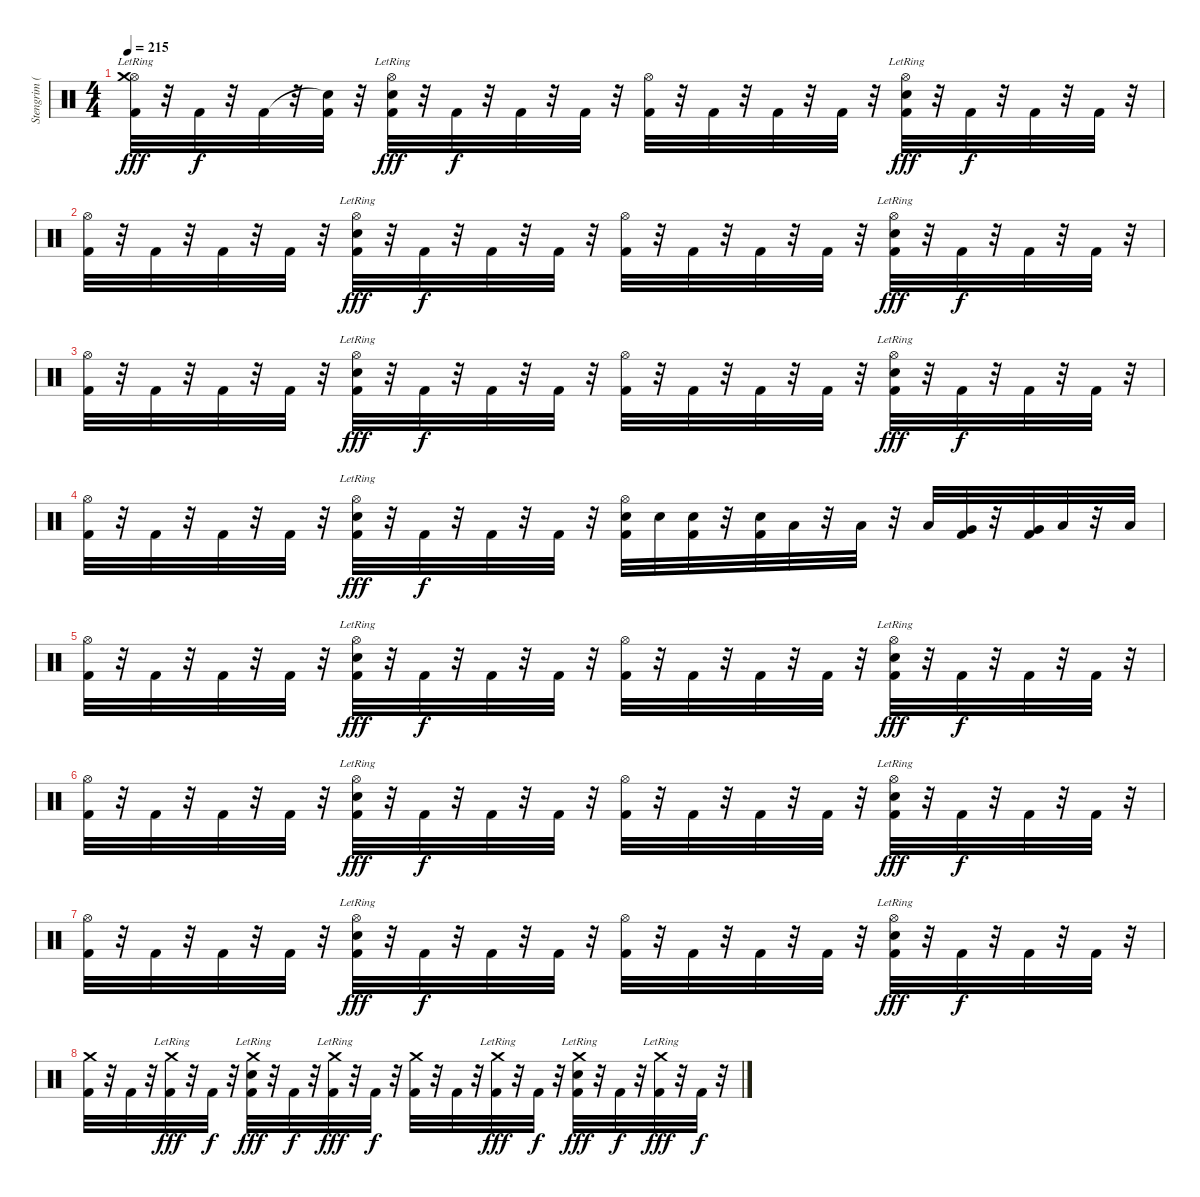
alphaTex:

\track ("Stengrim ( Batterie )" "Stengrim (") {instrument percussion}
\staff {score}
\articulation defaults
\ts (4 4)
\tempo 215
\clef neutral
\ks c
("Hi-Hat (open)" "Crash medium (hit)"{lr} "Kick (hit) 2").32{dy fff} r.32 "Kick (hit) 2".32{dy f} r.32 "Kick (hit) 2".32 r.32 ("Snare (hit)"{t} "Kick (hit) 2").32 r.32 ("Hi-Hat (open)" "Electric Snare (hit)"{lr} "Kick (hit) 2").32{dy fff} r.32 "Kick (hit) 2".32{dy f} r.32 "Kick (hit) 2".32 r.32 "Kick (hit) 2".32 r.32 ("Hi-Hat (open)" "Kick (hit) 2").32 r.32 "Kick (hit) 2".32 r.32 "Kick (hit) 2".32 r.32 "Kick (hit) 2".32 r.32 ("Hi-Hat (open)" "Electric Snare (hit)"{lr} "Kick (hit) 2").32{dy fff} r.32 "Kick (hit) 2".32{dy f} r.32 "Kick (hit) 2".32 r.32 "Kick (hit) 2".32 r.32 |
("Hi-Hat (open)" "Kick (hit) 2").32 r.32 "Kick (hit) 2".32 r.32 "Kick (hit) 2".32 r.32 "Kick (hit) 2".32 r.32 ("Hi-Hat (open)" "Electric Snare (hit)"{lr} "Kick (hit) 2").32{dy fff} r.32 "Kick (hit) 2".32{dy f} r.32 "Kick (hit) 2".32 r.32 "Kick (hit) 2".32 r.32 ("Hi-Hat (open)" "Kick (hit) 2").32 r.32 "Kick (hit) 2".32 r.32 "Kick (hit) 2".32 r.32 "Kick (hit) 2".32 r.32 ("Hi-Hat (open)" "Electric Snare (hit)"{lr} "Kick (hit) 2").32{dy fff} r.32 "Kick (hit) 2".32{dy f} r.32 "Kick (hit) 2".32 r.32 "Kick (hit) 2".32 r.32 |
("Hi-Hat (open)" "Kick (hit) 2").32 r.32 "Kick (hit) 2".32 r.32 "Kick (hit) 2".32 r.32 "Kick (hit) 2".32 r.32 ("Hi-Hat (open)" "Electric Snare (hit)"{lr} "Kick (hit) 2").32{dy fff} r.32 "Kick (hit) 2".32{dy f} r.32 "Kick (hit) 2".32 r.32 "Kick (hit) 2".32 r.32 ("Hi-Hat (open)" "Kick (hit) 2").32 r.32 "Kick (hit) 2".32 r.32 "Kick (hit) 2".32 r.32 "Kick (hit) 2".32 r.32 ("Hi-Hat (open)" "Electric Snare (hit)"{lr} "Kick (hit) 2").32{dy fff} r.32 "Kick (hit) 2".32{dy f} r.32 "Kick (hit) 2".32 r.32 "Kick (hit) 2".32 r.32 |
("Hi-Hat (open)" "Kick (hit) 2").32 r.32 "Kick (hit) 2".32 r.32 "Kick (hit) 2".32 r.32 "Kick (hit) 2".32 r.32 ("Hi-Hat (open)" "Electric Snare (hit)"{lr} "Kick (hit) 2").32{dy fff} r.32 "Kick (hit) 2".32{dy f} r.32 "Kick (hit) 2".32 r.32 "Kick (hit) 2".32 r.32 ("Hi-Hat (open)" "Electric Snare (hit)" "Kick (hit) 2").32 "Electric Snare (hit)".32 ("Electric Snare (hit)" "Kick (hit) 2").32 r.32 ("Electric Snare (hit)" "Kick (hit) 2").32 "Low Tom (hit)".32 r.32 "Low Tom (hit)".32 r.32 "Low Tom (hit)".32 ("Very Low Tom (hit)" "Kick (hit) 2").32 r.32 ("Very Low Tom (hit)" "Kick (hit) 2").32 "Low Floor Tom (hit)".32 r.32 "Low Floor Tom (hit)".32 |
("Hi-Hat (open)" "Kick (hit) 2").32 r.32 "Kick (hit) 2".32 r.32 "Kick (hit) 2".32 r.32 "Kick (hit) 2".32 r.32 ("Hi-Hat (open)" "Electric Snare (hit)"{lr} "Kick (hit) 2").32{dy fff} r.32 "Kick (hit) 2".32{dy f} r.32 "Kick (hit) 2".32 r.32 "Kick (hit) 2".32 r.32 ("Hi-Hat (open)" "Kick (hit) 2").32 r.32 "Kick (hit) 2".32 r.32 "Kick (hit) 2".32 r.32 "Kick (hit) 2".32 r.32 ("Hi-Hat (open)" "Electric Snare (hit)"{lr} "Kick (hit) 2").32{dy fff} r.32 "Kick (hit) 2".32{dy f} r.32 "Kick (hit) 2".32 r.32 "Kick (hit) 2".32 r.32 |
("Hi-Hat (open)" "Kick (hit) 2").32 r.32 "Kick (hit) 2".32 r.32 "Kick (hit) 2".32 r.32 "Kick (hit) 2".32 r.32 ("Hi-Hat (open)" "Electric Snare (hit)"{lr} "Kick (hit) 2").32{dy fff} r.32 "Kick (hit) 2".32{dy f} r.32 "Kick (hit) 2".32 r.32 "Kick (hit) 2".32 r.32 ("Hi-Hat (open)" "Kick (hit) 2").32 r.32 "Kick (hit) 2".32 r.32 "Kick (hit) 2".32 r.32 "Kick (hit) 2".32 r.32 ("Hi-Hat (open)" "Electric Snare (hit)"{lr} "Kick (hit) 2").32{dy fff} r.32 "Kick (hit) 2".32{dy f} r.32 "Kick (hit) 2".32 r.32 "Kick (hit) 2".32 r.32 |
("Hi-Hat (open)" "Kick (hit) 2").32 r.32 "Kick (hit) 2".32 r.32 "Kick (hit) 2".32 r.32 "Kick (hit) 2".32 r.32 ("Hi-Hat (open)" "Electric Snare (hit)"{lr} "Kick (hit) 2").32{dy fff} r.32 "Kick (hit) 2".32{dy f} r.32 "Kick (hit) 2".32 r.32 "Kick (hit) 2".32 r.32 ("Hi-Hat (open)" "Kick (hit) 2").32 r.32 "Kick (hit) 2".32 r.32 "Kick (hit) 2".32 r.32 "Kick (hit) 2".32 r.32 ("Hi-Hat (open)" "Electric Snare (hit)"{lr} "Kick (hit) 2").32{dy fff} r.32 "Kick (hit) 2".32{dy f} r.32 "Kick (hit) 2".32 r.32 "Kick (hit) 2".32 r.32 |
("Crash medium (hit)" "Kick (hit) 2").32 r.32 "Kick (hit) 2".32 r.32 ("Crash medium (hit)"{lr} "Kick (hit) 2").32{dy fff} r.32 "Kick (hit) 2".32{dy f} r.32 ("Crash medium (hit)" "Electric Snare (hit)"{lr} "Kick (hit) 2").32{dy fff} r.32 "Kick (hit) 2".32{dy f} r.32 ("Crash medium (hit)"{lr} "Kick (hit) 2").32{dy fff} r.32 "Kick (hit) 2".32{dy f} r.32 ("Crash medium (hit)" "Kick (hit) 2").32 r.32 "Kick (hit) 2".32 r.32 ("Crash medium (hit)"{lr} "Kick (hit) 2").32{dy fff} r.32 "Kick (hit) 2".32{dy f} r.32 ("Crash medium (hit)" "Electric Snare (hit)"{lr} "Kick (hit) 2").32{dy fff} r.32 "Kick (hit) 2".32{dy f} r.32 ("Crash medium (hit)"{lr} "Kick (hit) 2").32{dy fff} r.32 "Kick (hit) 2".32{dy f} r.32
